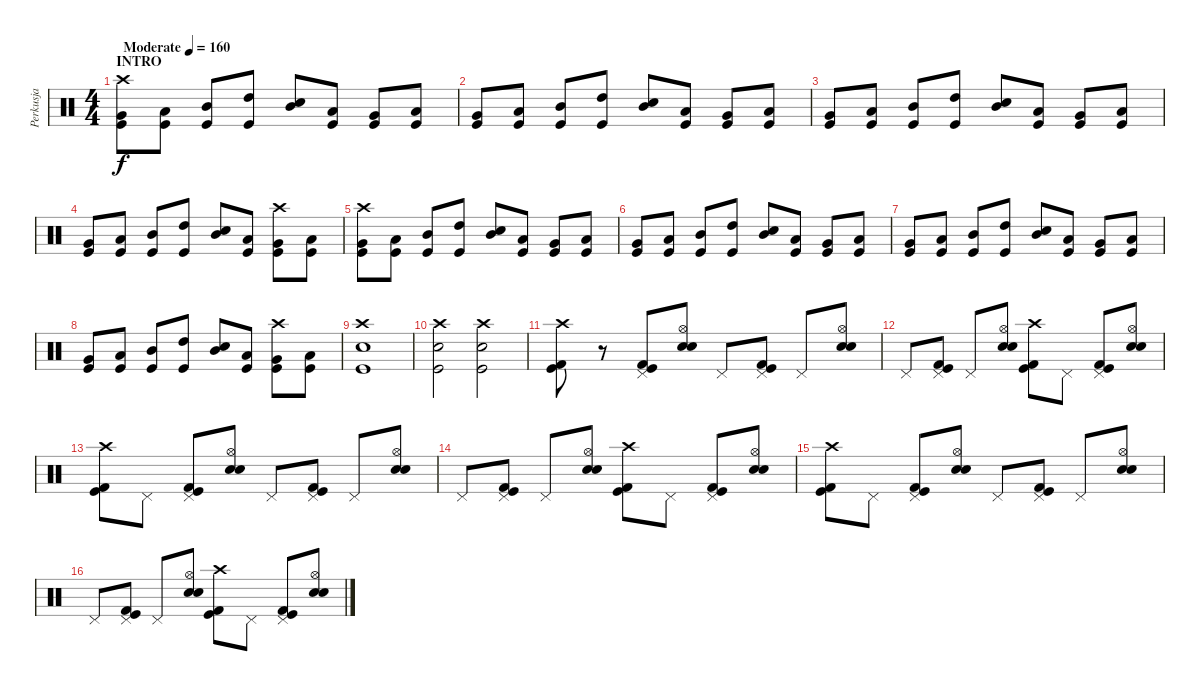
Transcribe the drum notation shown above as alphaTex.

\track ("Perkusja" "Perkusja") {instrument percussion}
\staff {score}
\articulation defaults
\ts (4 4)
\section ("" "INTRO")
\tempo (160 "Moderate")
\clef neutral
\ks c
("Crash high (hit)" "Very Low Tom (hit)" "Kick (hit)").8{dy f} ("Low Tom (hit)" "Kick (hit)").8 ("Mid Tom (hit)" "Kick (hit)").8 ("High Tom (hit)" "Kick (hit)").8 ("Mid Tom (hit)" "Snare (hit) 2").8 ("Low Tom (hit)" "Kick (hit)").8 ("Very Low Tom (hit)" "Kick (hit)").8 ("Low Floor Tom (hit)" "Kick (hit)").8 |
("Very Low Tom (hit)" "Kick (hit)").8 ("Low Tom (hit)" "Kick (hit)").8 ("Mid Tom (hit)" "Kick (hit)").8 ("High Tom (hit)" "Kick (hit)").8 ("Mid Tom (hit)" "Snare (hit) 2").8 ("Low Tom (hit)" "Kick (hit)").8 ("Very Low Tom (hit)" "Kick (hit)").8 ("Low Floor Tom (hit)" "Kick (hit)").8 |
("Very Low Tom (hit)" "Kick (hit)").8 ("Low Tom (hit)" "Kick (hit)").8 ("Mid Tom (hit)" "Kick (hit)").8 ("High Tom (hit)" "Kick (hit)").8 ("Mid Tom (hit)" "Snare (hit) 2").8 ("Low Tom (hit)" "Kick (hit)").8 ("Very Low Tom (hit)" "Kick (hit)").8 ("Low Floor Tom (hit)" "Kick (hit)").8 |
("Very Low Tom (hit)" "Kick (hit)").8 ("Low Tom (hit)" "Kick (hit)").8 ("Mid Tom (hit)" "Kick (hit)").8 ("High Tom (hit)" "Kick (hit)").8 ("Mid Tom (hit)" "Snare (hit) 2").8 ("Low Tom (hit)" "Kick (hit)").8 ("Crash high (hit)" "Very Low Tom (hit)" "Kick (hit)").8 ("Low Floor Tom (hit)" "Kick (hit)").8 |
("Crash high (hit)" "Very Low Tom (hit)" "Kick (hit)").8 ("Low Tom (hit)" "Kick (hit)").8 ("Mid Tom (hit)" "Kick (hit)").8 ("High Tom (hit)" "Kick (hit)").8 ("Mid Tom (hit)" "Snare (hit) 2").8 ("Low Tom (hit)" "Kick (hit)").8 ("Very Low Tom (hit)" "Kick (hit)").8 ("Low Floor Tom (hit)" "Kick (hit)").8 |
("Very Low Tom (hit)" "Kick (hit)").8 ("Low Tom (hit)" "Kick (hit)").8 ("Mid Tom (hit)" "Kick (hit)").8 ("High Tom (hit)" "Kick (hit)").8 ("Mid Tom (hit)" "Snare (hit) 2").8 ("Low Tom (hit)" "Kick (hit)").8 ("Very Low Tom (hit)" "Kick (hit)").8 ("Low Floor Tom (hit)" "Kick (hit)").8 |
("Very Low Tom (hit)" "Kick (hit)").8 ("Low Tom (hit)" "Kick (hit)").8 ("Mid Tom (hit)" "Kick (hit)").8 ("High Tom (hit)" "Kick (hit)").8 ("Mid Tom (hit)" "Snare (hit) 2").8 ("Low Tom (hit)" "Kick (hit)").8 ("Very Low Tom (hit)" "Kick (hit)").8 ("Low Floor Tom (hit)" "Kick (hit)").8 |
("Very Low Tom (hit)" "Kick (hit)").8 ("Low Tom (hit)" "Kick (hit)").8 ("Mid Tom (hit)" "Kick (hit)").8 ("High Tom (hit)" "Kick (hit)").8 ("Mid Tom (hit)" "Snare (hit) 2").8 ("Low Tom (hit)" "Kick (hit)").8 ("Crash high (hit)" "Very Low Tom (hit)" "Kick (hit)").8 ("Low Floor Tom (hit)" "Kick (hit)").8 |
("Snare (hit) 2" "Crash high (hit)" "Kick (hit)").1 |
("Snare (hit) 2" "Crash high (hit)" "Kick (hit)").2 ("Snare (hit) 2" "Crash high (hit)" "Kick (hit)").2 |
("Crash high (hit)" "Kick (hit)" "Kick (hit) 2").8 r.8 ("Pedal Hi-Hat (hit)" "Kick (hit)" "Kick (hit) 2").8 ("Hi-Hat (open)" "Snare (hit) 2" "Electric Snare (hit)").8 "Pedal Hi-Hat (hit)".8 ("Pedal Hi-Hat (hit)" "Kick (hit)" "Kick (hit) 2").8 "Pedal Hi-Hat (hit)".8 ("Hi-Hat (open)" "Snare (hit) 2" "Electric Snare (hit)").8 |
"Pedal Hi-Hat (hit)".8 ("Pedal Hi-Hat (hit)" "Kick (hit)" "Kick (hit) 2").8 "Pedal Hi-Hat (hit)".8 ("Hi-Hat (open)" "Snare (hit) 2" "Electric Snare (hit)").8 ("Crash high (hit)" "Kick (hit)" "Kick (hit) 2").8 "Pedal Hi-Hat (hit)".8 ("Pedal Hi-Hat (hit)" "Kick (hit)" "Kick (hit) 2").8 ("Hi-Hat (open)" "Snare (hit) 2" "Electric Snare (hit)").8 |
("Crash high (hit)" "Kick (hit)" "Kick (hit) 2").8 "Pedal Hi-Hat (hit)".8 ("Pedal Hi-Hat (hit)" "Kick (hit)" "Kick (hit) 2").8 ("Hi-Hat (open)" "Snare (hit) 2" "Electric Snare (hit)").8 "Pedal Hi-Hat (hit)".8 ("Pedal Hi-Hat (hit)" "Kick (hit)" "Kick (hit) 2").8 "Pedal Hi-Hat (hit)".8 ("Hi-Hat (open)" "Snare (hit) 2" "Electric Snare (hit)").8 |
"Pedal Hi-Hat (hit)".8 ("Pedal Hi-Hat (hit)" "Kick (hit)" "Kick (hit) 2").8 "Pedal Hi-Hat (hit)".8 ("Hi-Hat (open)" "Snare (hit) 2" "Electric Snare (hit)").8 ("Crash high (hit)" "Kick (hit)" "Kick (hit) 2").8 "Pedal Hi-Hat (hit)".8 ("Pedal Hi-Hat (hit)" "Kick (hit)" "Kick (hit) 2").8 ("Hi-Hat (open)" "Snare (hit) 2" "Electric Snare (hit)").8 |
("Crash high (hit)" "Kick (hit)" "Kick (hit) 2").8 "Pedal Hi-Hat (hit)".8 ("Pedal Hi-Hat (hit)" "Kick (hit)" "Kick (hit) 2").8 ("Hi-Hat (open)" "Snare (hit) 2" "Electric Snare (hit)").8 "Pedal Hi-Hat (hit)".8 ("Pedal Hi-Hat (hit)" "Kick (hit)" "Kick (hit) 2").8 "Pedal Hi-Hat (hit)".8 ("Hi-Hat (open)" "Snare (hit) 2" "Electric Snare (hit)").8 |
"Pedal Hi-Hat (hit)".8 ("Pedal Hi-Hat (hit)" "Kick (hit)" "Kick (hit) 2").8 "Pedal Hi-Hat (hit)".8 ("Hi-Hat (open)" "Snare (hit) 2" "Electric Snare (hit)").8 ("Crash high (hit)" "Kick (hit)" "Kick (hit) 2").8 "Pedal Hi-Hat (hit)".8 ("Pedal Hi-Hat (hit)" "Kick (hit)" "Kick (hit) 2").8 ("Hi-Hat (open)" "Snare (hit) 2" "Electric Snare (hit)").8
